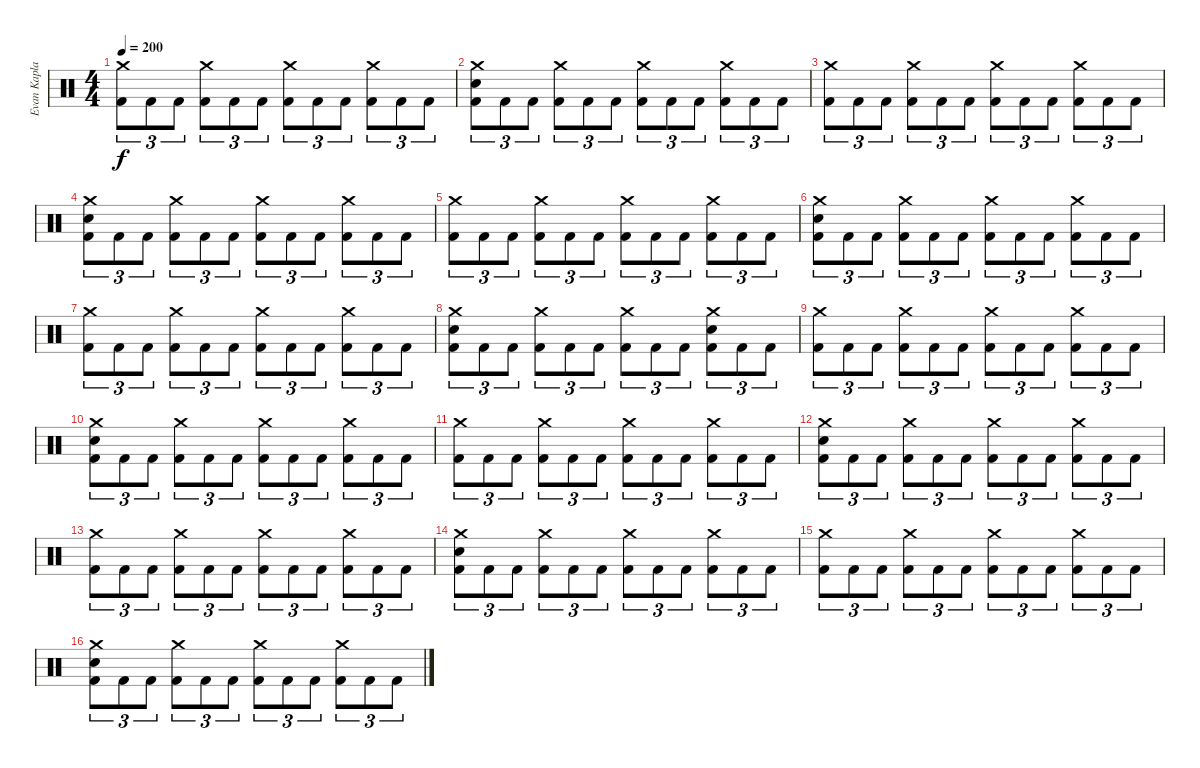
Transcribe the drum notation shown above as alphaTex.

\track ("Evan Kaplan (Drums)" "Evan Kapla") {instrument percussion}
\staff {score}
\articulation defaults
\ts (4 4)
\tempo 200
\clef neutral
\ks c
("Crash medium (hit)" "Kick (hit) 2").8{tu (3 2) dy f} "Kick (hit) 2".8{tu (3 2)} "Kick (hit) 2".8{tu (3 2)} ("Crash medium (hit)" "Kick (hit) 2").8{tu (3 2)} "Kick (hit) 2".8{tu (3 2)} "Kick (hit) 2".8{tu (3 2)} ("Crash medium (hit)" "Kick (hit) 2").8{tu (3 2)} "Kick (hit) 2".8{tu (3 2)} "Kick (hit) 2".8{tu (3 2)} ("Crash medium (hit)" "Kick (hit) 2").8{tu (3 2)} "Kick (hit) 2".8{tu (3 2)} "Kick (hit) 2".8{tu (3 2)} |
("Crash medium (hit)" "Electric Snare (hit)" "Kick (hit) 2").8{tu (3 2)} "Kick (hit) 2".8{tu (3 2)} "Kick (hit) 2".8{tu (3 2)} ("Crash medium (hit)" "Kick (hit) 2").8{tu (3 2)} "Kick (hit) 2".8{tu (3 2)} "Kick (hit) 2".8{tu (3 2)} ("Crash medium (hit)" "Kick (hit) 2").8{tu (3 2)} "Kick (hit) 2".8{tu (3 2)} "Kick (hit) 2".8{tu (3 2)} ("Crash medium (hit)" "Kick (hit) 2").8{tu (3 2)} "Kick (hit) 2".8{tu (3 2)} "Kick (hit) 2".8{tu (3 2)} |
("Crash medium (hit)" "Kick (hit) 2").8{tu (3 2)} "Kick (hit) 2".8{tu (3 2)} "Kick (hit) 2".8{tu (3 2)} ("Crash medium (hit)" "Kick (hit) 2").8{tu (3 2)} "Kick (hit) 2".8{tu (3 2)} "Kick (hit) 2".8{tu (3 2)} ("Crash medium (hit)" "Kick (hit) 2").8{tu (3 2)} "Kick (hit) 2".8{tu (3 2)} "Kick (hit) 2".8{tu (3 2)} ("Crash medium (hit)" "Kick (hit) 2").8{tu (3 2)} "Kick (hit) 2".8{tu (3 2)} "Kick (hit) 2".8{tu (3 2)} |
("Crash medium (hit)" "Electric Snare (hit)" "Kick (hit) 2").8{tu (3 2)} "Kick (hit) 2".8{tu (3 2)} "Kick (hit) 2".8{tu (3 2)} ("Crash medium (hit)" "Kick (hit) 2").8{tu (3 2)} "Kick (hit) 2".8{tu (3 2)} "Kick (hit) 2".8{tu (3 2)} ("Crash medium (hit)" "Kick (hit) 2").8{tu (3 2)} "Kick (hit) 2".8{tu (3 2)} "Kick (hit) 2".8{tu (3 2)} ("Crash medium (hit)" "Kick (hit) 2").8{tu (3 2)} "Kick (hit) 2".8{tu (3 2)} "Kick (hit) 2".8{tu (3 2)} |
("Crash medium (hit)" "Kick (hit) 2").8{tu (3 2)} "Kick (hit) 2".8{tu (3 2)} "Kick (hit) 2".8{tu (3 2)} ("Crash medium (hit)" "Kick (hit) 2").8{tu (3 2)} "Kick (hit) 2".8{tu (3 2)} "Kick (hit) 2".8{tu (3 2)} ("Crash medium (hit)" "Kick (hit) 2").8{tu (3 2)} "Kick (hit) 2".8{tu (3 2)} "Kick (hit) 2".8{tu (3 2)} ("Crash medium (hit)" "Kick (hit) 2").8{tu (3 2)} "Kick (hit) 2".8{tu (3 2)} "Kick (hit) 2".8{tu (3 2)} |
("Crash medium (hit)" "Electric Snare (hit)" "Kick (hit) 2").8{tu (3 2)} "Kick (hit) 2".8{tu (3 2)} "Kick (hit) 2".8{tu (3 2)} ("Crash medium (hit)" "Kick (hit) 2").8{tu (3 2)} "Kick (hit) 2".8{tu (3 2)} "Kick (hit) 2".8{tu (3 2)} ("Crash medium (hit)" "Kick (hit) 2").8{tu (3 2)} "Kick (hit) 2".8{tu (3 2)} "Kick (hit) 2".8{tu (3 2)} ("Crash medium (hit)" "Kick (hit) 2").8{tu (3 2)} "Kick (hit) 2".8{tu (3 2)} "Kick (hit) 2".8{tu (3 2)} |
("Crash medium (hit)" "Kick (hit) 2").8{tu (3 2)} "Kick (hit) 2".8{tu (3 2)} "Kick (hit) 2".8{tu (3 2)} ("Crash medium (hit)" "Kick (hit) 2").8{tu (3 2)} "Kick (hit) 2".8{tu (3 2)} "Kick (hit) 2".8{tu (3 2)} ("Crash medium (hit)" "Kick (hit) 2").8{tu (3 2)} "Kick (hit) 2".8{tu (3 2)} "Kick (hit) 2".8{tu (3 2)} ("Crash medium (hit)" "Kick (hit) 2").8{tu (3 2)} "Kick (hit) 2".8{tu (3 2)} "Kick (hit) 2".8{tu (3 2)} |
("Crash medium (hit)" "Electric Snare (hit)" "Kick (hit) 2").8{tu (3 2)} "Kick (hit) 2".8{tu (3 2)} "Kick (hit) 2".8{tu (3 2)} ("Crash medium (hit)" "Kick (hit) 2").8{tu (3 2)} "Kick (hit) 2".8{tu (3 2)} "Kick (hit) 2".8{tu (3 2)} ("Crash medium (hit)" "Kick (hit) 2").8{tu (3 2)} "Kick (hit) 2".8{tu (3 2)} "Kick (hit) 2".8{tu (3 2)} ("Crash medium (hit)" "Electric Snare (hit)" "Kick (hit) 2").8{tu (3 2)} "Kick (hit) 2".8{tu (3 2)} "Kick (hit) 2".8{tu (3 2)} |
("Crash medium (hit)" "Kick (hit) 2").8{tu (3 2)} "Kick (hit) 2".8{tu (3 2)} "Kick (hit) 2".8{tu (3 2)} ("Crash medium (hit)" "Kick (hit) 2").8{tu (3 2)} "Kick (hit) 2".8{tu (3 2)} "Kick (hit) 2".8{tu (3 2)} ("Crash medium (hit)" "Kick (hit) 2").8{tu (3 2)} "Kick (hit) 2".8{tu (3 2)} "Kick (hit) 2".8{tu (3 2)} ("Crash medium (hit)" "Kick (hit) 2").8{tu (3 2)} "Kick (hit) 2".8{tu (3 2)} "Kick (hit) 2".8{tu (3 2)} |
("Crash medium (hit)" "Electric Snare (hit)" "Kick (hit) 2").8{tu (3 2)} "Kick (hit) 2".8{tu (3 2)} "Kick (hit) 2".8{tu (3 2)} ("Crash medium (hit)" "Kick (hit) 2").8{tu (3 2)} "Kick (hit) 2".8{tu (3 2)} "Kick (hit) 2".8{tu (3 2)} ("Crash medium (hit)" "Kick (hit) 2").8{tu (3 2)} "Kick (hit) 2".8{tu (3 2)} "Kick (hit) 2".8{tu (3 2)} ("Crash medium (hit)" "Kick (hit) 2").8{tu (3 2)} "Kick (hit) 2".8{tu (3 2)} "Kick (hit) 2".8{tu (3 2)} |
("Crash medium (hit)" "Kick (hit) 2").8{tu (3 2)} "Kick (hit) 2".8{tu (3 2)} "Kick (hit) 2".8{tu (3 2)} ("Crash medium (hit)" "Kick (hit) 2").8{tu (3 2)} "Kick (hit) 2".8{tu (3 2)} "Kick (hit) 2".8{tu (3 2)} ("Crash medium (hit)" "Kick (hit) 2").8{tu (3 2)} "Kick (hit) 2".8{tu (3 2)} "Kick (hit) 2".8{tu (3 2)} ("Crash medium (hit)" "Kick (hit) 2").8{tu (3 2)} "Kick (hit) 2".8{tu (3 2)} "Kick (hit) 2".8{tu (3 2)} |
("Crash medium (hit)" "Electric Snare (hit)" "Kick (hit) 2").8{tu (3 2)} "Kick (hit) 2".8{tu (3 2)} "Kick (hit) 2".8{tu (3 2)} ("Crash medium (hit)" "Kick (hit) 2").8{tu (3 2)} "Kick (hit) 2".8{tu (3 2)} "Kick (hit) 2".8{tu (3 2)} ("Crash medium (hit)" "Kick (hit) 2").8{tu (3 2)} "Kick (hit) 2".8{tu (3 2)} "Kick (hit) 2".8{tu (3 2)} ("Crash medium (hit)" "Kick (hit) 2").8{tu (3 2)} "Kick (hit) 2".8{tu (3 2)} "Kick (hit) 2".8{tu (3 2)} |
("Crash medium (hit)" "Kick (hit) 2").8{tu (3 2)} "Kick (hit) 2".8{tu (3 2)} "Kick (hit) 2".8{tu (3 2)} ("Crash medium (hit)" "Kick (hit) 2").8{tu (3 2)} "Kick (hit) 2".8{tu (3 2)} "Kick (hit) 2".8{tu (3 2)} ("Crash medium (hit)" "Kick (hit) 2").8{tu (3 2)} "Kick (hit) 2".8{tu (3 2)} "Kick (hit) 2".8{tu (3 2)} ("Crash medium (hit)" "Kick (hit) 2").8{tu (3 2)} "Kick (hit) 2".8{tu (3 2)} "Kick (hit) 2".8{tu (3 2)} |
("Crash medium (hit)" "Electric Snare (hit)" "Kick (hit) 2").8{tu (3 2)} "Kick (hit) 2".8{tu (3 2)} "Kick (hit) 2".8{tu (3 2)} ("Crash medium (hit)" "Kick (hit) 2").8{tu (3 2)} "Kick (hit) 2".8{tu (3 2)} "Kick (hit) 2".8{tu (3 2)} ("Crash medium (hit)" "Kick (hit) 2").8{tu (3 2)} "Kick (hit) 2".8{tu (3 2)} "Kick (hit) 2".8{tu (3 2)} ("Crash medium (hit)" "Kick (hit) 2").8{tu (3 2)} "Kick (hit) 2".8{tu (3 2)} "Kick (hit) 2".8{tu (3 2)} |
("Crash medium (hit)" "Kick (hit) 2").8{tu (3 2)} "Kick (hit) 2".8{tu (3 2)} "Kick (hit) 2".8{tu (3 2)} ("Crash medium (hit)" "Kick (hit) 2").8{tu (3 2)} "Kick (hit) 2".8{tu (3 2)} "Kick (hit) 2".8{tu (3 2)} ("Crash medium (hit)" "Kick (hit) 2").8{tu (3 2)} "Kick (hit) 2".8{tu (3 2)} "Kick (hit) 2".8{tu (3 2)} ("Crash medium (hit)" "Kick (hit) 2").8{tu (3 2)} "Kick (hit) 2".8{tu (3 2)} "Kick (hit) 2".8{tu (3 2)} |
("Crash medium (hit)" "Electric Snare (hit)" "Kick (hit) 2").8{tu (3 2)} "Kick (hit) 2".8{tu (3 2)} "Kick (hit) 2".8{tu (3 2)} ("Crash medium (hit)" "Kick (hit) 2").8{tu (3 2)} "Kick (hit) 2".8{tu (3 2)} "Kick (hit) 2".8{tu (3 2)} ("Crash medium (hit)" "Kick (hit) 2").8{tu (3 2)} "Kick (hit) 2".8{tu (3 2)} "Kick (hit) 2".8{tu (3 2)} ("Crash medium (hit)" "Kick (hit) 2").8{tu (3 2)} "Kick (hit) 2".8{tu (3 2)} "Kick (hit) 2".8{tu (3 2)}
